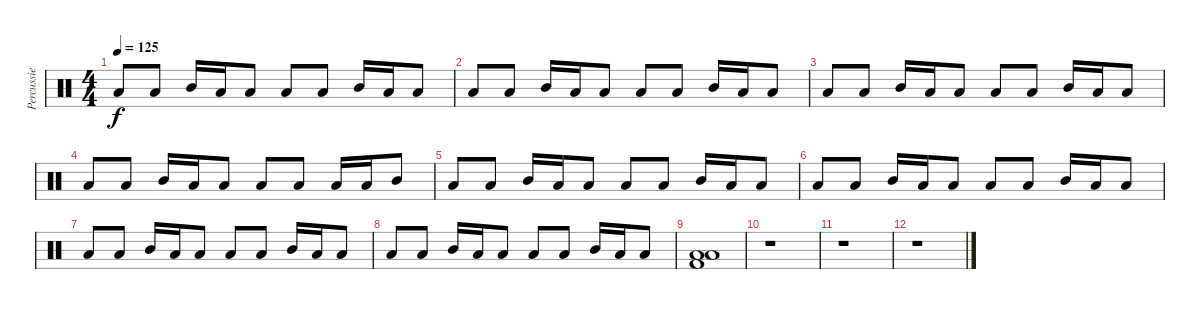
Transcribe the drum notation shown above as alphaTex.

\track ("Percussie" "Percussie") {instrument percussion}
\staff {score}
\articulation defaults
\ts (4 4)
\tempo 125
\clef neutral
\ks c "Low Floor Tom (hit)".8{dy f} "Low Floor Tom (hit)".8 "Mid Tom (hit)".16 "Low Tom (hit)".16 "Low Floor Tom (hit)".8 "Low Floor Tom (hit)".8 "Low Floor Tom (hit)".8 "Mid Tom (hit)".16 "Low Tom (hit)".16 "Low Floor Tom (hit)".8
|
"Low Floor Tom (hit)".8 "Low Floor Tom (hit)".8 "Mid Tom (hit)".16 "Low Tom (hit)".16 "Low Floor Tom (hit)".8 "Low Floor Tom (hit)".8 "Low Floor Tom (hit)".8 "Mid Tom (hit)".16 "Low Tom (hit)".16 "Low Floor Tom (hit)".8 |
"Low Floor Tom (hit)".8 "Low Floor Tom (hit)".8 "Mid Tom (hit)".16 "Low Tom (hit)".16 "Low Floor Tom (hit)".8 "Low Floor Tom (hit)".8 "Low Floor Tom (hit)".8 "Mid Tom (hit)".16 "Low Tom (hit)".16 "Low Floor Tom (hit)".8 |
"Low Floor Tom (hit)".8 "Low Floor Tom (hit)".8 "Mid Tom (hit)".16 "Low Tom (hit)".16 "Low Floor Tom (hit)".8 "Low Floor Tom (hit)".8 "Low Floor Tom (hit)".8 "Low Floor Tom (hit)".16 "Low Tom (hit)".16 "Mid Tom (hit)".8 |
"Low Floor Tom (hit)".8 "Low Floor Tom (hit)".8 "Mid Tom (hit)".16 "Low Tom (hit)".16 "Low Floor Tom (hit)".8 "Low Floor Tom (hit)".8 "Low Floor Tom (hit)".8 "Mid Tom (hit)".16 "Low Tom (hit)".16 "Low Floor Tom (hit)".8 |
"Low Floor Tom (hit)".8 "Low Floor Tom (hit)".8 "Mid Tom (hit)".16 "Low Tom (hit)".16 "Low Floor Tom (hit)".8 "Low Floor Tom (hit)".8 "Low Floor Tom (hit)".8 "Mid Tom (hit)".16 "Low Tom (hit)".16 "Low Floor Tom (hit)".8 |
"Low Floor Tom (hit)".8 "Low Floor Tom (hit)".8 "Mid Tom (hit)".16 "Low Tom (hit)".16 "Low Floor Tom (hit)".8 "Low Floor Tom (hit)".8 "Low Floor Tom (hit)".8 "Mid Tom (hit)".16 "Low Tom (hit)".16 "Low Floor Tom (hit)".8 |
"Low Floor Tom (hit)".8 "Low Floor Tom (hit)".8 "Mid Tom (hit)".16 "Low Tom (hit)".16 "Low Floor Tom (hit)".8 "Low Floor Tom (hit)".8 "Low Floor Tom (hit)".8 "Mid Tom (hit)".16 "Low Tom (hit)".16 "Low Floor Tom (hit)".8 |
("Low Floor Tom (hit)" "Low Floor Tom (hit)" "Kick (hit) 2").1 |
r.1 |
r.1 |
r.1
